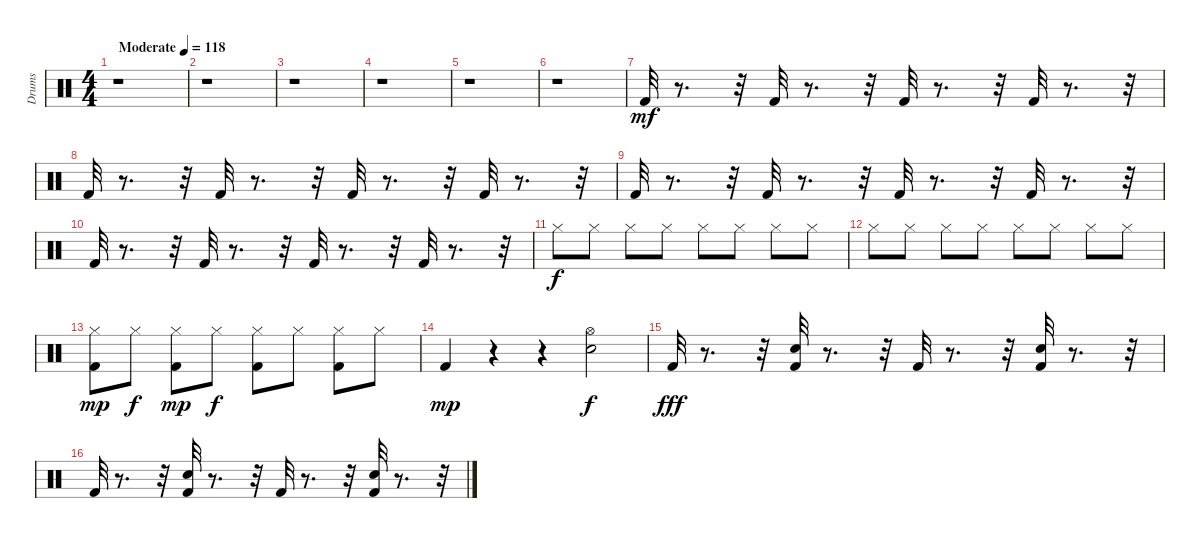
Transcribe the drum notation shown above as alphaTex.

\track ("Drums" "Drums") {instrument percussion}
\staff {score}
\articulation defaults
\ts (4 4)
\tempo (118 "Moderate")
\clef neutral
\ks c
r.1{dy mf} |
r.1 |
r.1 |
r.1 |
r.1 |
r.1 |
"Kick (hit) 2".32 r.8{d} r.32 "Kick (hit) 2".32 r.8{d} r.32 "Kick (hit) 2".32 r.8{d} r.32 "Kick (hit) 2".32 r.8{d} r.32 |
"Kick (hit) 2".32 r.8{d} r.32 "Kick (hit) 2".32 r.8{d} r.32 "Kick (hit) 2".32 r.8{d} r.32 "Kick (hit) 2".32 r.8{d} r.32 |
"Kick (hit) 2".32 r.8{d} r.32 "Kick (hit) 2".32 r.8{d} r.32 "Kick (hit) 2".32 r.8{d} r.32 "Kick (hit) 2".32 r.8{d} r.32 |
"Kick (hit) 2".32 r.8{d} r.32 "Kick (hit) 2".32 r.8{d} r.32 "Kick (hit) 2".32 r.8{d} r.32 "Kick (hit) 2".32 r.8{d} r.32 |
"Hi-Hat (closed)".8{dy f} "Hi-Hat (closed)".8 "Hi-Hat (closed)".8 "Hi-Hat (closed)".8 "Hi-Hat (closed)".8 "Hi-Hat (closed)".8 "Hi-Hat (closed)".8 "Hi-Hat (closed)".8 |
"Hi-Hat (closed)".8 "Hi-Hat (closed)".8 "Hi-Hat (closed)".8 "Hi-Hat (closed)".8 "Hi-Hat (closed)".8 "Hi-Hat (closed)".8 "Hi-Hat (closed)".8 "Hi-Hat (closed)".8 |
("Kick (hit) 2" "Hi-Hat (closed)").8{dy mp} "Hi-Hat (closed)".8{dy f} ("Kick (hit) 2" "Hi-Hat (closed)").8{dy mp} "Hi-Hat (closed)".8{dy f} ("Kick (hit) 2" "Hi-Hat (closed)").8 "Hi-Hat (closed)".8 ("Kick (hit) 2" "Hi-Hat (closed)").8 "Hi-Hat (closed)".8 |
"Kick (hit) 2".4{dy mp} r.4 r.4 ("Hi-Hat (open)" "Electric Snare (hit)").2{dy f} |
"Kick (hit) 2".32{dy fff} r.8{d} r.32 ("Kick (hit) 2" "Electric Snare (hit)").32 r.8{d} r.32 "Kick (hit) 2".32 r.8{d} r.32 ("Kick (hit) 2" "Electric Snare (hit)").32 r.8{d} r.32 |
"Kick (hit) 2".32 r.8{d} r.32 ("Kick (hit) 2" "Electric Snare (hit)").32 r.8{d} r.32 "Kick (hit) 2".32 r.8{d} r.32 ("Kick (hit) 2" "Electric Snare (hit)").32 r.8{d} r.32
